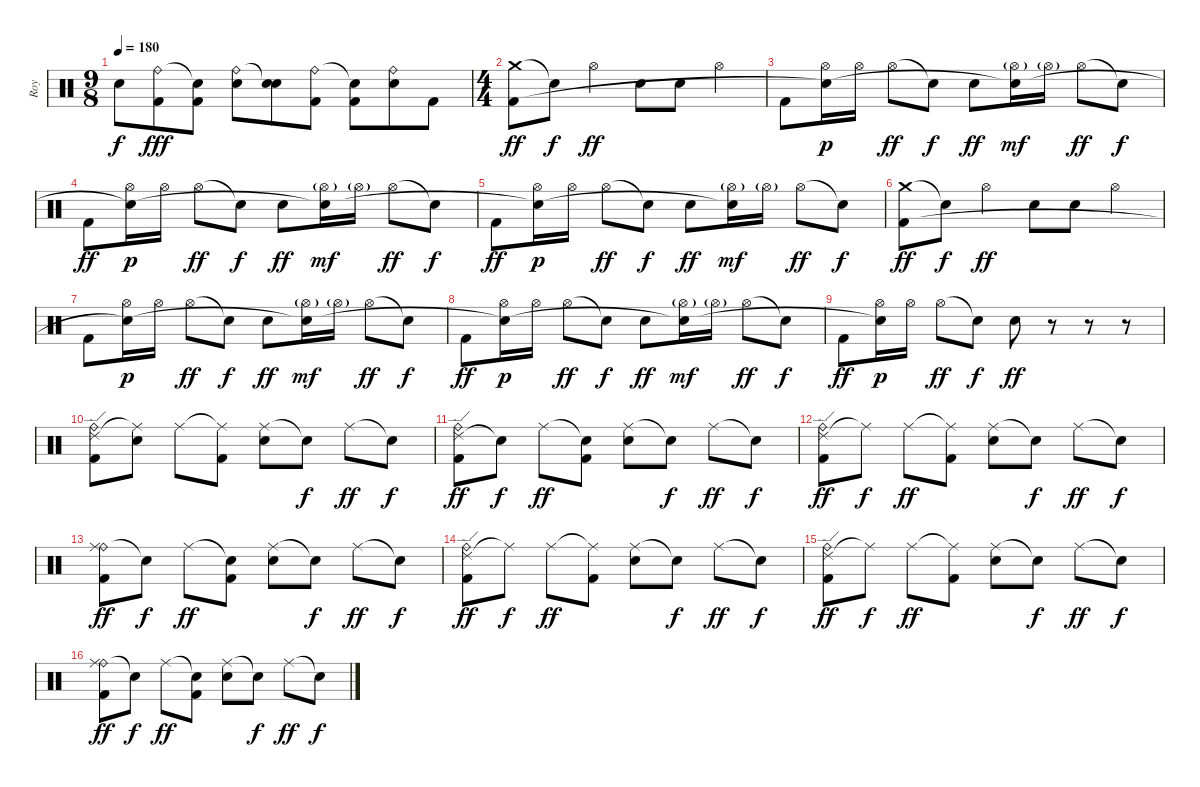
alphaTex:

\track ("Roy" "Roy") {instrument percussion}
\staff {score}
\articulation defaults
\ts (9 8)
\tempo 180
\clef neutral
\ks c "Snare (hit)"{t}.8{dy f}
("Ride (bell)" "Kick (hit) 2").8{dy fff} ("Snare (hit)"{t} "Kick (hit) 2").8 ("Ride (bell)" "Electric Snare (hit)").8 ("Snare (hit)"{t} "Electric Snare (hit)").8 ("Ride (bell)" "Kick (hit) 2").8 ("Snare (hit)"{t} "Kick (hit) 2").8 ("Ride (bell)" "Electric Snare (hit)").8 "Kick (hit) 2".8 |
\ts (4 4)
("Crash medium (hit)" "Kick (hit) 2").8{dy ff} "Snare (hit)"{t}.8{dy f} "Hi-Hat (open)".4{dy ff} "Electric Snare (hit)".8 "Electric Snare (hit)".8 "Hi-Hat (open)".4 |
"Kick (hit) 2".8 ("Hi-Hat (open)" "Snare (hit)"{t}).16{dy p} "Hi-Hat (open)".16 "Hi-Hat (open)".8{dy ff} "Snare (hit)"{t}.8{dy f} "Electric Snare (hit)".8{dy ff} ("Hi-Hat (open)"{g} "Snare (hit)"{t}).16{dy mf} "Hi-Hat (open)"{g}.16 "Hi-Hat (open)".8{dy ff} "Snare (hit)"{t}.8{dy f} |
"Kick (hit) 2".8{dy ff} ("Hi-Hat (open)" "Snare (hit)"{t}).16{dy p} "Hi-Hat (open)".16 "Hi-Hat (open)".8{dy ff} "Snare (hit)"{t}.8{dy f} "Electric Snare (hit)".8{dy ff} ("Hi-Hat (open)"{g} "Snare (hit)"{t}).16{dy mf} "Hi-Hat (open)"{g}.16 "Hi-Hat (open)".8{dy ff} "Snare (hit)"{t}.8{dy f} |
"Kick (hit) 2".8{dy ff} ("Hi-Hat (open)" "Snare (hit)"{t}).16{dy p} "Hi-Hat (open)".16 "Hi-Hat (open)".8{dy ff} "Snare (hit)"{t}.8{dy f} "Electric Snare (hit)".8{dy ff} ("Hi-Hat (open)"{g} "Snare (hit)"{t}).16{dy mf} "Hi-Hat (open)"{g}.16 "Hi-Hat (open)".8{dy ff} "Snare (hit)"{t}.8{dy f} |
("Crash medium (hit)" "Kick (hit) 2").8{dy ff} "Snare (hit)"{t}.8{dy f} "Hi-Hat (open)".4{dy ff} "Electric Snare (hit)".8 "Electric Snare (hit)".8 "Hi-Hat (open)".4 |
"Kick (hit) 2".8 ("Hi-Hat (open)" "Snare (hit)"{t}).16{dy p} "Hi-Hat (open)".16 "Hi-Hat (open)".8{dy ff} "Snare (hit)"{t}.8{dy f} "Electric Snare (hit)".8{dy ff} ("Hi-Hat (open)"{g} "Snare (hit)"{t}).16{dy mf} "Hi-Hat (open)"{g}.16 "Hi-Hat (open)".8{dy ff} "Snare (hit)"{t}.8{dy f} |
"Kick (hit) 2".8{dy ff} ("Hi-Hat (open)" "Snare (hit)"{t}).16{dy p} "Hi-Hat (open)".16 "Hi-Hat (open)".8{dy ff} "Snare (hit)"{t}.8{dy f} "Electric Snare (hit)".8{dy ff} ("Hi-Hat (open)"{g} "Snare (hit)"{t}).16{dy mf} "Hi-Hat (open)"{g}.16 "Hi-Hat (open)".8{dy ff} "Snare (hit)"{t}.8{dy f} |
"Kick (hit) 2".8{dy ff} ("Hi-Hat (open)" "Snare (hit)"{t}).16{dy p} "Hi-Hat (open)".16 "Hi-Hat (open)".8{dy ff} "Snare (hit)"{t}.8{dy f} "Electric Snare (hit)".8{dy ff} r.8 r.8 r.8 |
("Ride (edge) 2" "Ride (bell)" "Kick (hit) 2").8 ("Ride (middle)"{t} "Electric Snare (hit)").8 "Ride (middle)".8 ("Ride (middle)"{t} "Kick (hit) 2").8 ("Ride (middle)" "Electric Snare (hit)").8 "Snare (hit)"{t}.8{dy f} "Ride (middle)".8{dy ff} "Snare (hit)"{t}.8{dy f} |
("Ride (edge) 2" "Ride (bell)" "Kick (hit) 2").8{dy ff} "Snare (hit)"{t}.8{dy f} "Ride (middle)".8{dy ff} ("Snare (hit)"{t} "Kick (hit) 2").8 ("Ride (middle)" "Electric Snare (hit)").8 "Snare (hit)"{t}.8{dy f} "Ride (middle)".8{dy ff} "Snare (hit)"{t}.8{dy f} |
("Ride (edge) 2" "Ride (bell)" "Kick (hit) 2").8{dy ff} "Ride (middle)"{t}.8{dy f} "Ride (middle)".8{dy ff} ("Ride (middle)"{t} "Kick (hit) 2").8 ("Ride (middle)" "Electric Snare (hit)").8 "Snare (hit)"{t}.8{dy f} "Ride (middle)".8{dy ff} "Snare (hit)"{t}.8{dy f} |
("Ride (bell)" "Ride (middle)" "Kick (hit) 2").8{dy ff} "Snare (hit)"{t}.8{dy f} "Ride (middle)".8{dy ff} ("Snare (hit)"{t} "Kick (hit) 2").8 ("Ride (middle)" "Electric Snare (hit)").8 "Snare (hit)"{t}.8{dy f} "Ride (middle)".8{dy ff} "Snare (hit)"{t}.8{dy f} |
("Ride (edge) 2" "Ride (bell)" "Kick (hit) 2").8{dy ff} "Ride (middle)"{t}.8{dy f} "Ride (middle)".8{dy ff} ("Ride (middle)"{t} "Kick (hit) 2").8 ("Ride (middle)" "Electric Snare (hit)").8 "Snare (hit)"{t}.8{dy f} "Ride (middle)".8{dy ff} "Snare (hit)"{t}.8{dy f} |
("Ride (edge) 2" "Ride (bell)" "Kick (hit) 2").8{dy ff} "Ride (middle)"{t}.8{dy f} "Ride (middle)".8{dy ff} ("Ride (middle)"{t} "Kick (hit) 2").8 ("Ride (middle)" "Electric Snare (hit)").8 "Snare (hit)"{t}.8{dy f} "Ride (middle)".8{dy ff} "Snare (hit)"{t}.8{dy f} |
("Ride (bell)" "Ride (middle)" "Kick (hit) 2").8{dy ff} "Snare (hit)"{t}.8{dy f} "Ride (middle)".8{dy ff} ("Snare (hit)"{t} "Kick (hit) 2").8 ("Ride (middle)" "Electric Snare (hit)").8 "Snare (hit)"{t}.8{dy f} "Ride (middle)".8{dy ff} "Snare (hit)"{t}.8{dy f}
